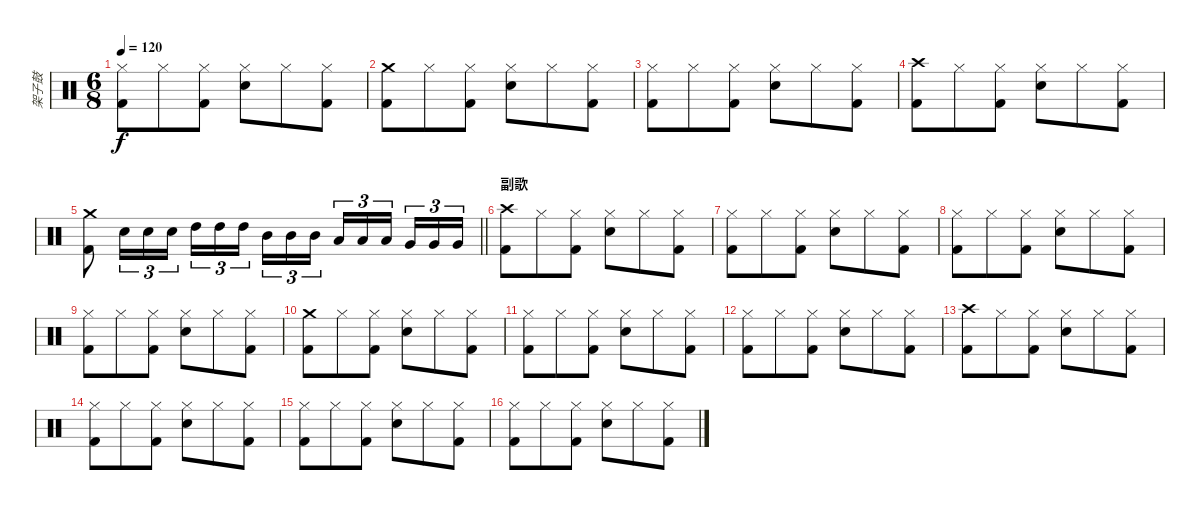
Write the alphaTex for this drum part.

\track ("架子鼓" "架子鼓") {instrument percussion}
\staff {score}
\articulation defaults
\ts (6 8)
\tempo 120
\clef neutral
\ks c
("Hi-Hat (closed)" "Kick (hit) 2").8{dy f} "Hi-Hat (closed)".8 ("Hi-Hat (closed)" "Kick (hit) 2").8 ("Hi-Hat (closed)" "Electric Snare (hit)").8 "Hi-Hat (closed)".8 ("Hi-Hat (closed)" "Kick (hit) 2").8 |
("Crash medium (hit)" "Kick (hit) 2").8 "Hi-Hat (closed)".8 ("Hi-Hat (closed)" "Kick (hit) 2").8 ("Hi-Hat (closed)" "Electric Snare (hit)").8 "Hi-Hat (closed)".8 ("Hi-Hat (closed)" "Kick (hit) 2").8 |
("Hi-Hat (closed)" "Kick (hit) 2").8 "Hi-Hat (closed)".8 ("Hi-Hat (closed)" "Kick (hit) 2").8 ("Hi-Hat (closed)" "Electric Snare (hit)").8 "Hi-Hat (closed)".8 ("Hi-Hat (closed)" "Kick (hit) 2").8 |
("Crash high (hit)" "Kick (hit) 2").8 "Hi-Hat (closed)".8 ("Hi-Hat (closed)" "Kick (hit) 2").8 ("Hi-Hat (closed)" "Electric Snare (hit)").8 "Hi-Hat (closed)".8 ("Hi-Hat (closed)" "Kick (hit) 2").8 |
\barLineRight lightlight
("Crash medium (hit)" "Kick (hit) 2").8 "Electric Snare (hit)".16{tu (3 2)} "Electric Snare (hit)".16{tu (3 2)} "Electric Snare (hit)".16{tu (3 2) beam splitsecondary} "High Tom (hit)".16{tu (3 2)} "High Tom (hit)".16{tu (3 2)} "High Tom (hit)".16{tu (3 2)} "Mid Tom (hit)".16{tu (3 2)} "Mid Tom (hit)".16{tu (3 2)} "Mid Tom (hit)".16{tu (3 2) beam splitsecondary} "Low Tom (hit)".16{tu (3 2)} "Low Tom (hit)".16{tu (3 2)} "Low Tom (hit)".16{tu (3 2) beam splitsecondary} "Very Low Tom (hit)".16{tu (3 2)} "Very Low Tom (hit)".16{tu (3 2)} "Very Low Tom (hit)".16{tu (3 2)} |
\section ("" "副歌")
("Crash high (hit)" "Kick (hit) 2").8 "Hi-Hat (closed)".8 ("Hi-Hat (closed)" "Kick (hit) 2").8 ("Hi-Hat (closed)" "Electric Snare (hit)").8 "Hi-Hat (closed)".8 ("Hi-Hat (closed)" "Kick (hit) 2").8 |
("Hi-Hat (closed)" "Kick (hit) 2").8 "Hi-Hat (closed)".8 ("Hi-Hat (closed)" "Kick (hit) 2").8 ("Hi-Hat (closed)" "Electric Snare (hit)").8 "Hi-Hat (closed)".8 ("Hi-Hat (closed)" "Kick (hit) 2").8 |
("Hi-Hat (closed)" "Kick (hit) 2").8 "Hi-Hat (closed)".8 ("Hi-Hat (closed)" "Kick (hit) 2").8 ("Hi-Hat (closed)" "Electric Snare (hit)").8 "Hi-Hat (closed)".8 ("Hi-Hat (closed)" "Kick (hit) 2").8 |
("Hi-Hat (closed)" "Kick (hit) 2").8 "Hi-Hat (closed)".8 ("Hi-Hat (closed)" "Kick (hit) 2").8 ("Hi-Hat (closed)" "Electric Snare (hit)").8 "Hi-Hat (closed)".8 ("Hi-Hat (closed)" "Kick (hit) 2").8 |
("Crash medium (hit)" "Kick (hit) 2").8 "Hi-Hat (closed)".8 ("Hi-Hat (closed)" "Kick (hit) 2").8 ("Hi-Hat (closed)" "Electric Snare (hit)").8 "Hi-Hat (closed)".8 ("Hi-Hat (closed)" "Kick (hit) 2").8 |
("Hi-Hat (closed)" "Kick (hit) 2").8 "Hi-Hat (closed)".8 ("Hi-Hat (closed)" "Kick (hit) 2").8 ("Hi-Hat (closed)" "Electric Snare (hit)").8 "Hi-Hat (closed)".8 ("Hi-Hat (closed)" "Kick (hit) 2").8 |
("Hi-Hat (closed)" "Kick (hit) 2").8 "Hi-Hat (closed)".8 ("Hi-Hat (closed)" "Kick (hit) 2").8 ("Hi-Hat (closed)" "Electric Snare (hit)").8 "Hi-Hat (closed)".8 ("Hi-Hat (closed)" "Kick (hit) 2").8 |
("Crash high (hit)" "Kick (hit) 2").8 "Hi-Hat (closed)".8 ("Hi-Hat (closed)" "Kick (hit) 2").8 ("Hi-Hat (closed)" "Electric Snare (hit)").8 "Hi-Hat (closed)".8 ("Hi-Hat (closed)" "Kick (hit) 2").8 |
("Hi-Hat (closed)" "Kick (hit) 2").8 "Hi-Hat (closed)".8 ("Hi-Hat (closed)" "Kick (hit) 2").8 ("Hi-Hat (closed)" "Electric Snare (hit)").8 "Hi-Hat (closed)".8 ("Hi-Hat (closed)" "Kick (hit) 2").8 |
("Hi-Hat (closed)" "Kick (hit) 2").8 "Hi-Hat (closed)".8 ("Hi-Hat (closed)" "Kick (hit) 2").8 ("Hi-Hat (closed)" "Electric Snare (hit)").8 "Hi-Hat (closed)".8 ("Hi-Hat (closed)" "Kick (hit) 2").8 |
("Hi-Hat (closed)" "Kick (hit) 2").8 "Hi-Hat (closed)".8 ("Hi-Hat (closed)" "Kick (hit) 2").8 ("Hi-Hat (closed)" "Electric Snare (hit)").8 "Hi-Hat (closed)".8 ("Hi-Hat (closed)" "Kick (hit) 2").8
